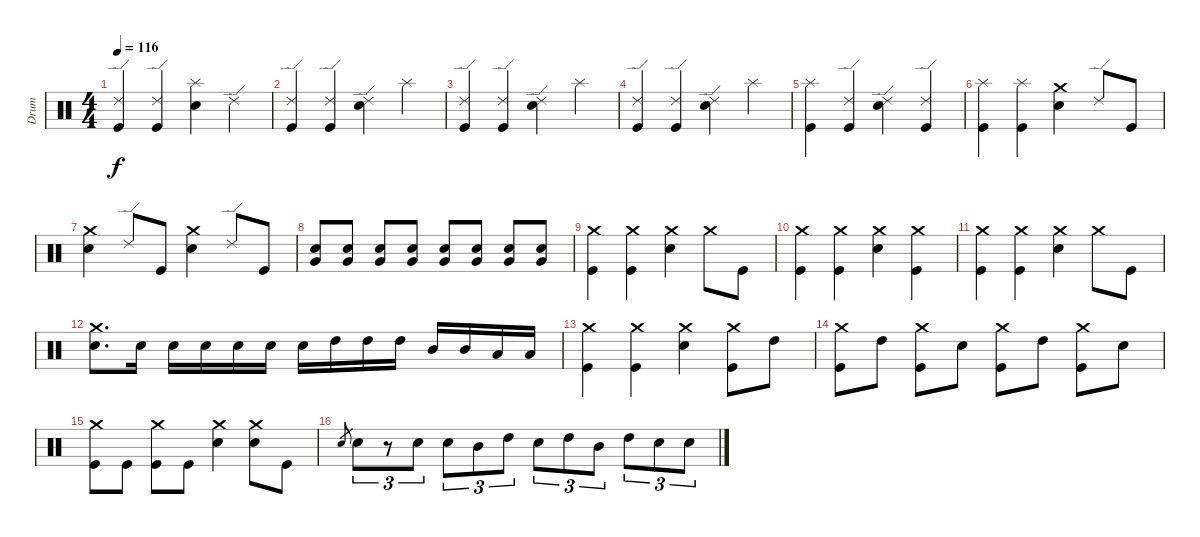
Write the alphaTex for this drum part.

\track ("Drum" "Drum") {instrument percussion}
\staff {score}
\articulation defaults
\ts (4 4)
\tempo 116
\clef neutral
\ks c
("Kick (hit)" "Ride (edge) 2").4{dy f} ("Kick (hit)" "Ride (edge) 2").4 ("Electric Snare (hit)" "Splash (hit)").4 "Ride (edge) 2".4 |
("Kick (hit)" "Ride (edge) 2").4 ("Kick (hit)" "Ride (edge) 2").4 ("Electric Snare (hit)" "Ride (edge) 2").4 "Splash (hit)".4 |
("Kick (hit)" "Ride (edge) 2").4 ("Kick (hit)" "Ride (edge) 2").4 ("Electric Snare (hit)" "Ride (edge) 2").4 "Splash (hit)".4 |
("Kick (hit)" "Ride (edge) 2").4 ("Kick (hit)" "Ride (edge) 2").4 ("Electric Snare (hit)" "Ride (edge) 2").4 "Splash (hit)".4 |
("Kick (hit)" "Splash (hit)").4 ("Kick (hit)" "Ride (edge) 2").4 ("Electric Snare (hit)" "Ride (edge) 2").4 ("Kick (hit)" "Ride (edge) 2").4 |
("Kick (hit)" "Splash (hit)").4 ("Kick (hit)" "Splash (hit)").4 ("Electric Snare (hit)" "Crash medium (hit)").4 "Ride (edge) 2".8 "Kick (hit)".8 |
("Electric Snare (hit)" "Crash medium (hit)").4 "Ride (edge) 2".8 "Kick (hit)".8 ("Electric Snare (hit)" "Crash medium (hit)").4 "Ride (edge) 2".8 "Kick (hit)".8 |
("Electric Snare (hit)" "Very Low Tom (hit)").8 ("Electric Snare (hit)" "Very Low Tom (hit)").8 ("Electric Snare (hit)" "Very Low Tom (hit)").8 ("Electric Snare (hit)" "Very Low Tom (hit)").8 ("Electric Snare (hit)" "Very Low Tom (hit)").8 ("Electric Snare (hit)" "Very Low Tom (hit)").8 ("Electric Snare (hit)" "Very Low Tom (hit)").8 ("Electric Snare (hit)" "Very Low Tom (hit)").8 |
("Kick (hit)" "Crash medium (hit)").4 ("Kick (hit)" "Crash medium (hit)").4 ("Electric Snare (hit)" "Crash medium (hit)").4 "Crash medium (hit)".8 "Kick (hit)".8 |
("Kick (hit)" "Crash medium (hit)").4 ("Kick (hit)" "Crash medium (hit)").4 ("Electric Snare (hit)" "Crash medium (hit)").4 ("Kick (hit)" "Crash medium (hit)").4 |
("Kick (hit)" "Crash medium (hit)").4 ("Kick (hit)" "Crash medium (hit)").4 ("Electric Snare (hit)" "Crash medium (hit)").4 "Crash medium (hit)".8 "Kick (hit)".8 |
("Electric Snare (hit)" "Crash medium (hit)").8{d} "Electric Snare (hit)".16 "Electric Snare (hit)".16 "Electric Snare (hit)".16 "Electric Snare (hit)".16 "Electric Snare (hit)".16 "Electric Snare (hit)".16 "High Tom (hit)".16 "High Tom (hit)".16 "High Tom (hit)".16 "Mid Tom (hit)".16 "Mid Tom (hit)".16 "Low Tom (hit)".16 "Low Tom (hit)".16 |
("Kick (hit)" "Crash medium (hit)").4 ("Kick (hit)" "Crash medium (hit)").4 ("Electric Snare (hit)" "Crash medium (hit)").4 ("Kick (hit)" "Crash medium (hit)").8 "High Tom (hit)".8 |
("Kick (hit)" "Crash medium (hit)").8 "High Tom (hit)".8 ("Kick (hit)" "Crash medium (hit)").8 "Electric Snare (hit)".8 ("Kick (hit)" "Crash medium (hit)").8 "High Tom (hit)".8 ("Kick (hit)" "Crash medium (hit)").8 "Electric Snare (hit)".8 |
("Kick (hit)" "Crash medium (hit)").8 "Kick (hit)".8 ("Kick (hit)" "Crash medium (hit)").8 "Kick (hit)".8 ("Electric Snare (hit)" "Crash medium (hit)").4 ("Electric Snare (hit)" "Crash medium (hit)").8 "Kick (hit)".8 |
"Electric Snare (hit)".8{gr} "Electric Snare (hit)".8{tu (3 2)} r.8{tu (3 2)} "Electric Snare (hit)".8{tu (3 2)} "Electric Snare (hit)".8{tu (3 2)} "Mid Tom (hit)".8{tu (3 2)} "High Tom (hit)".8{tu (3 2)} "Electric Snare (hit)".8{tu (3 2)} "High Tom (hit)".8{tu (3 2)} "Mid Tom (hit)".8{tu (3 2)} "High Tom (hit)".8{tu (3 2)} "Electric Snare (hit)".8{tu (3 2)} "Electric Snare (hit)".8{tu (3 2)}
